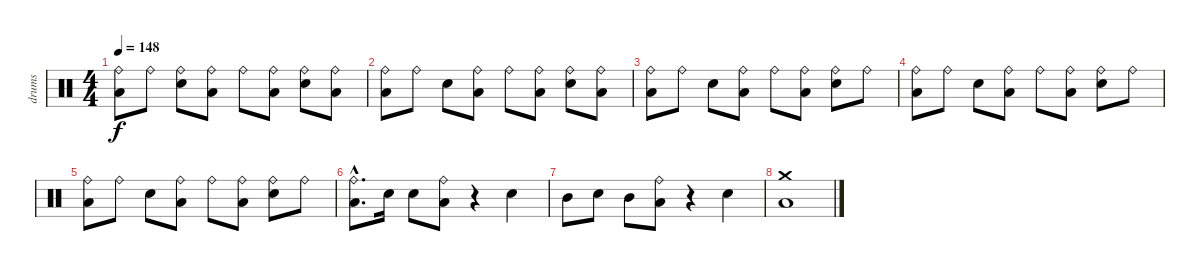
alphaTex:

\track ("drums" "drums") {instrument percussion}
\staff {score}
\articulation defaults
\ts (4 4)
\tempo 148
\clef neutral
\ks c
("Ride (bell)" "Low Floor Tom (hit)").8{dy f} "Ride (bell)".8 ("Ride (bell)" "Electric Snare (hit)").8 ("Ride (bell)" "Low Floor Tom (hit)").8 "Ride (bell)".8 ("Ride (bell)" "Low Floor Tom (hit)").8 ("Ride (bell)" "Electric Snare (hit)").8 ("Ride (bell)" "Low Floor Tom (hit)").8 |
("Ride (bell)" "Low Floor Tom (hit)").8 "Ride (bell)".8 "Electric Snare (hit)".8 ("Ride (bell)" "Low Floor Tom (hit)").8 "Ride (bell)".8 ("Ride (bell)" "Low Floor Tom (hit)").8 ("Ride (bell)" "Electric Snare (hit)").8 ("Ride (bell)" "Low Floor Tom (hit)").8 |
("Ride (bell)" "Low Floor Tom (hit)").8 "Ride (bell)".8 "Electric Snare (hit)".8 ("Ride (bell)" "Low Floor Tom (hit)").8 "Ride (bell)".8 ("Ride (bell)" "Low Floor Tom (hit)").8 ("Ride (bell)" "Electric Snare (hit)").8 "Ride (bell)".8 |
("Ride (bell)" "Low Floor Tom (hit)").8 "Ride (bell)".8 "Electric Snare (hit)".8 ("Ride (bell)" "Low Floor Tom (hit)").8 "Ride (bell)".8 ("Ride (bell)" "Low Floor Tom (hit)").8 ("Ride (bell)" "Electric Snare (hit)").8 "Ride (bell)".8 |
("Ride (bell)" "Low Floor Tom (hit)").8 "Ride (bell)".8 "Electric Snare (hit)".8 ("Ride (bell)" "Low Floor Tom (hit)").8 "Ride (bell)".8 ("Ride (bell)" "Low Floor Tom (hit)").8 ("Ride (bell)" "Electric Snare (hit)").8 "Ride (bell)".8 |
("Ride (bell)"{hac} "Low Floor Tom (hit)"{hac}).8{d} "Electric Snare (hit)".16 "Electric Snare (hit)".8 ("Ride (bell)" "Low Floor Tom (hit)").8 r.4 "Electric Snare (hit)".4 |
"Mid Tom (hit)".8 "Electric Snare (hit)".8 "Mid Tom (hit)".8 ("Ride (bell)" "Low Floor Tom (hit)").8 r.4 "Electric Snare (hit)".4 |
("Crash medium (hit)" "Low Floor Tom (hit)").1
